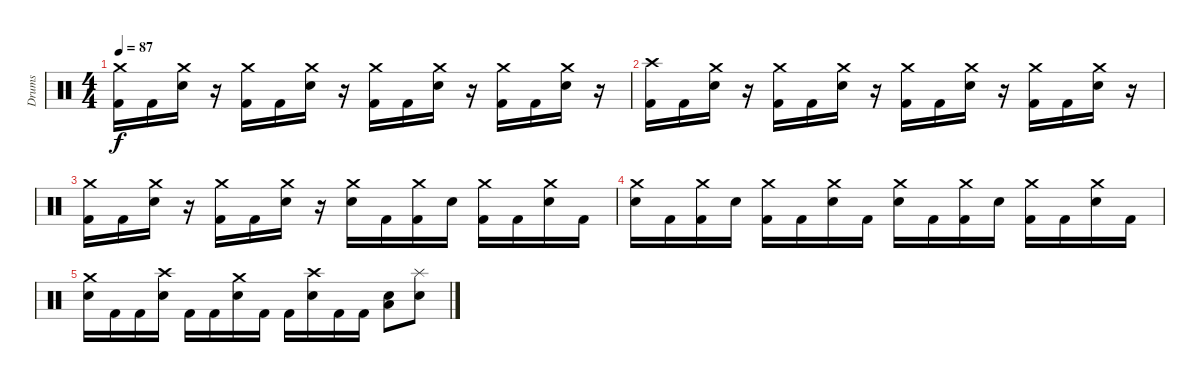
\track ("Drums" "Drums") {instrument percussion}
\staff {score}
\articulation defaults
\ts (4 4)
\tempo 87
\clef neutral
\ks c
("Crash medium (hit)" "Kick (hit) 2").16{dy f} "Kick (hit) 2".16 ("Crash medium (hit)" "Electric Snare (hit)").16 r.16 ("Crash medium (hit)" "Kick (hit) 2").16 "Kick (hit) 2".16 ("Crash medium (hit)" "Electric Snare (hit)").16 r.16 ("Crash medium (hit)" "Kick (hit) 2").16 "Kick (hit) 2".16 ("Crash medium (hit)" "Electric Snare (hit)").16 r.16 ("Crash medium (hit)" "Kick (hit) 2").16 "Kick (hit) 2".16 ("Crash medium (hit)" "Electric Snare (hit)").16 r.16 |
("Crash high (hit)" "Kick (hit) 2").16 "Kick (hit) 2".16 ("Crash medium (hit)" "Electric Snare (hit)").16 r.16 ("Crash medium (hit)" "Kick (hit) 2").16 "Kick (hit) 2".16 ("Crash medium (hit)" "Electric Snare (hit)").16 r.16 ("Crash medium (hit)" "Kick (hit) 2").16 "Kick (hit) 2".16 ("Crash medium (hit)" "Electric Snare (hit)").16 r.16 ("Crash medium (hit)" "Kick (hit) 2").16 "Kick (hit) 2".16 ("Crash medium (hit)" "Electric Snare (hit)").16 r.16 |
("Crash medium (hit)" "Kick (hit) 2").16 "Kick (hit) 2".16 ("Crash medium (hit)" "Electric Snare (hit)").16 r.16 ("Crash medium (hit)" "Kick (hit) 2").16 "Kick (hit) 2".16 ("Crash medium (hit)" "Electric Snare (hit)").16 r.16 ("Crash medium (hit)" "Electric Snare (hit)").16 "Kick (hit) 2".16 ("Crash medium (hit)" "Kick (hit) 2").16 "Electric Snare (hit)".16 ("Crash medium (hit)" "Kick (hit) 2").16 "Kick (hit) 2".16 ("Crash medium (hit)" "Electric Snare (hit)").16 "Kick (hit) 2".16 |
("Crash medium (hit)" "Electric Snare (hit)").16 "Kick (hit) 2".16 ("Crash medium (hit)" "Kick (hit) 2").16 "Electric Snare (hit)".16 ("Crash medium (hit)" "Kick (hit) 2").16 "Kick (hit) 2".16 ("Crash medium (hit)" "Electric Snare (hit)").16 "Kick (hit) 2".16 ("Crash medium (hit)" "Electric Snare (hit)").16 "Kick (hit) 2".16 ("Crash medium (hit)" "Kick (hit) 2").16 "Electric Snare (hit)".16 ("Crash medium (hit)" "Kick (hit) 2").16 "Kick (hit) 2".16 ("Crash medium (hit)" "Electric Snare (hit)").16 "Kick (hit) 2".16 |
("Crash medium (hit)" "Electric Snare (hit)").16 "Kick (hit) 2".16 "Kick (hit) 2".16 ("Crash high (hit)" "Electric Snare (hit)").16 "Kick (hit) 2".16 "Kick (hit) 2".16 ("Crash medium (hit)" "Electric Snare (hit)").16 "Kick (hit) 2".16 "Kick (hit) 2".16 ("Crash high (hit)" "Electric Snare (hit)").16 "Kick (hit) 2".16 "Kick (hit) 2".16 ("Electric Snare (hit)" "Low Tom (hit)").8 ("Splash (hit)" "Electric Snare (hit)").8
